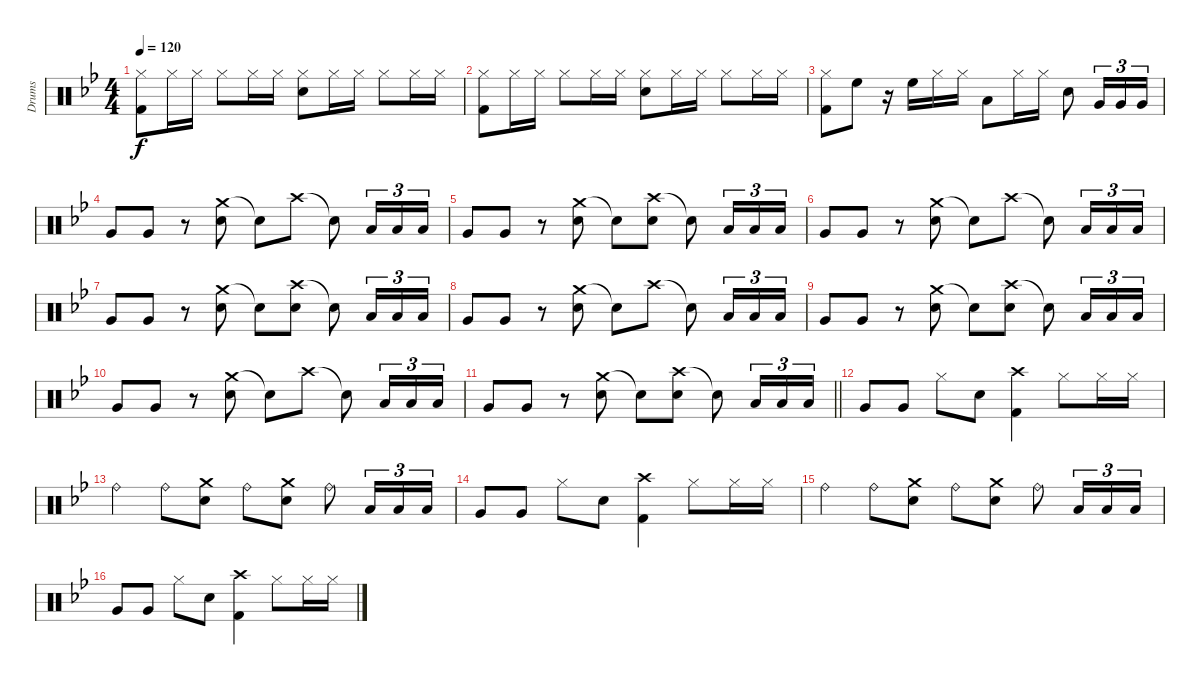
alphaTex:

\track ("Drums" "Drums") {instrument percussion}
\staff {score}
\articulation defaults
\ts (4 4)
\tempo 120
\clef neutral
\ks bb
("Hi-Hat (closed)" "Kick (hit) 2").8{dy f} "Hi-Hat (closed)".16 "Hi-Hat (closed)".16 "Hi-Hat (closed)".8 "Hi-Hat (closed)".16 "Hi-Hat (closed)".16 ("Hi-Hat (closed)" "Electric Snare (hit)").8 "Hi-Hat (closed)".16 "Hi-Hat (closed)".16 "Hi-Hat (closed)".8 "Hi-Hat (closed)".16 "Hi-Hat (closed)".16 |
("Hi-Hat (closed)" "Kick (hit) 2").8 "Hi-Hat (closed)".16 "Hi-Hat (closed)".16 "Hi-Hat (closed)".8 "Hi-Hat (closed)".16 "Hi-Hat (closed)".16 ("Hi-Hat (closed)" "Electric Snare (hit)").8 "Hi-Hat (closed)".16 "Hi-Hat (closed)".16 "Hi-Hat (closed)".8 "Hi-Hat (closed)".16 "Hi-Hat (closed)".16 |
("Hi-Hat (closed)" "Kick (hit) 2").8 "High Floor Tom (hit)".8 r.16 "High Floor Tom (hit)".16 "Hi-Hat (closed)".16 "Hi-Hat (closed)".16 "Low Tom (hit)".8 "Hi-Hat (closed)".16 "Hi-Hat (closed)".16 "Electric Snare (hit)".8 "Very Low Tom (hit)".16{tu (3 2)} "Very Low Tom (hit)".16{tu (3 2)} "Very Low Tom (hit)".16{tu (3 2)} |
"Very Low Tom (hit)".8 "Very Low Tom (hit)".8 r.8 ("Crash medium (hit)" "Electric Snare (hit)").8 "Snare (hit)"{t}.8 "Crash high (hit)".8 "Snare (hit)"{t}.8 "Low Floor Tom (hit)".16{tu (3 2)} "Low Floor Tom (hit)".16{tu (3 2)} "Low Floor Tom (hit)".16{tu (3 2)} |
"Very Low Tom (hit)".8 "Very Low Tom (hit)".8 r.8 ("Crash medium (hit)" "Electric Snare (hit)").8 "Snare (hit)"{t}.8 ("Crash high (hit)" "Electric Snare (hit)").8 "Snare (hit)"{t}.8 "Low Floor Tom (hit)".16{tu (3 2)} "Low Floor Tom (hit)".16{tu (3 2)} "Low Floor Tom (hit)".16{tu (3 2)} |
"Very Low Tom (hit)".8 "Very Low Tom (hit)".8 r.8 ("Crash medium (hit)" "Electric Snare (hit)").8 "Snare (hit)"{t}.8 "Crash high (hit)".8 "Snare (hit)"{t}.8 "Low Floor Tom (hit)".16{tu (3 2)} "Low Floor Tom (hit)".16{tu (3 2)} "Low Floor Tom (hit)".16{tu (3 2)} |
"Very Low Tom (hit)".8 "Very Low Tom (hit)".8 r.8 ("Crash medium (hit)" "Electric Snare (hit)").8 "Snare (hit)"{t}.8 ("Crash high (hit)" "Electric Snare (hit)").8 "Snare (hit)"{t}.8 "Low Floor Tom (hit)".16{tu (3 2)} "Low Floor Tom (hit)".16{tu (3 2)} "Low Floor Tom (hit)".16{tu (3 2)} |
"Very Low Tom (hit)".8 "Very Low Tom (hit)".8 r.8 ("Crash medium (hit)" "Electric Snare (hit)").8 "Snare (hit)"{t}.8 "Crash high (hit)".8 "Snare (hit)"{t}.8 "Low Floor Tom (hit)".16{tu (3 2)} "Low Floor Tom (hit)".16{tu (3 2)} "Low Floor Tom (hit)".16{tu (3 2)} |
"Very Low Tom (hit)".8 "Very Low Tom (hit)".8 r.8 ("Crash medium (hit)" "Electric Snare (hit)").8 "Snare (hit)"{t}.8 ("Crash high (hit)" "Electric Snare (hit)").8 "Snare (hit)"{t}.8 "Low Floor Tom (hit)".16{tu (3 2)} "Low Floor Tom (hit)".16{tu (3 2)} "Low Floor Tom (hit)".16{tu (3 2)} |
"Very Low Tom (hit)".8 "Very Low Tom (hit)".8 r.8 ("Crash medium (hit)" "Electric Snare (hit)").8 "Snare (hit)"{t}.8 "Crash high (hit)".8 "Snare (hit)"{t}.8 "Low Floor Tom (hit)".16{tu (3 2)} "Low Floor Tom (hit)".16{tu (3 2)} "Low Floor Tom (hit)".16{tu (3 2)} |
\barLineRight lightlight "Very Low Tom (hit)".8 "Very Low Tom (hit)".8
r.8 ("Crash medium (hit)" "Electric Snare (hit)").8 "Snare (hit)"{t}.8 ("Crash high (hit)" "Electric Snare (hit)").8 "Snare (hit)"{t}.8 "Low Floor Tom (hit)".16{tu (3 2)} "Low Floor Tom (hit)".16{tu (3 2)} "Low Floor Tom (hit)".16{tu (3 2)} |
"Very Low Tom (hit)".8 "Very Low Tom (hit)".8 "Hi-Hat (closed)".8 "Electric Snare (hit)".8 ("Crash high (hit)" "Kick (hit) 2").4 "Hi-Hat (closed)".8 "Hi-Hat (closed)".16 "Hi-Hat (closed)".16 |
"Ride (bell)".4 "Ride (bell)".8 ("Crash medium (hit)" "Electric Snare (hit)").8 "Ride (bell)".8 ("Crash medium (hit)" "Electric Snare (hit)").8 "Ride (bell)".8 "Low Floor Tom (hit)".16{tu (3 2)} "Low Floor Tom (hit)".16{tu (3 2)} "Low Floor Tom (hit)".16{tu (3 2)} |
"Very Low Tom (hit)".8 "Very Low Tom (hit)".8 "Hi-Hat (closed)".8 "Electric Snare (hit)".8 ("Crash high (hit)" "Kick (hit) 2").4 "Hi-Hat (closed)".8 "Hi-Hat (closed)".16 "Hi-Hat (closed)".16 |
"Ride (bell)".4 "Ride (bell)".8 ("Crash medium (hit)" "Electric Snare (hit)").8 "Ride (bell)".8 ("Crash medium (hit)" "Electric Snare (hit)").8 "Ride (bell)".8 "Low Floor Tom (hit)".16{tu (3 2)} "Low Floor Tom (hit)".16{tu (3 2)} "Low Floor Tom (hit)".16{tu (3 2)} |
"Very Low Tom (hit)".8 "Very Low Tom (hit)".8 "Hi-Hat (closed)".8 "Electric Snare (hit)".8 ("Crash high (hit)" "Kick (hit) 2").4 "Hi-Hat (closed)".8 "Hi-Hat (closed)".16 "Hi-Hat (closed)".16
